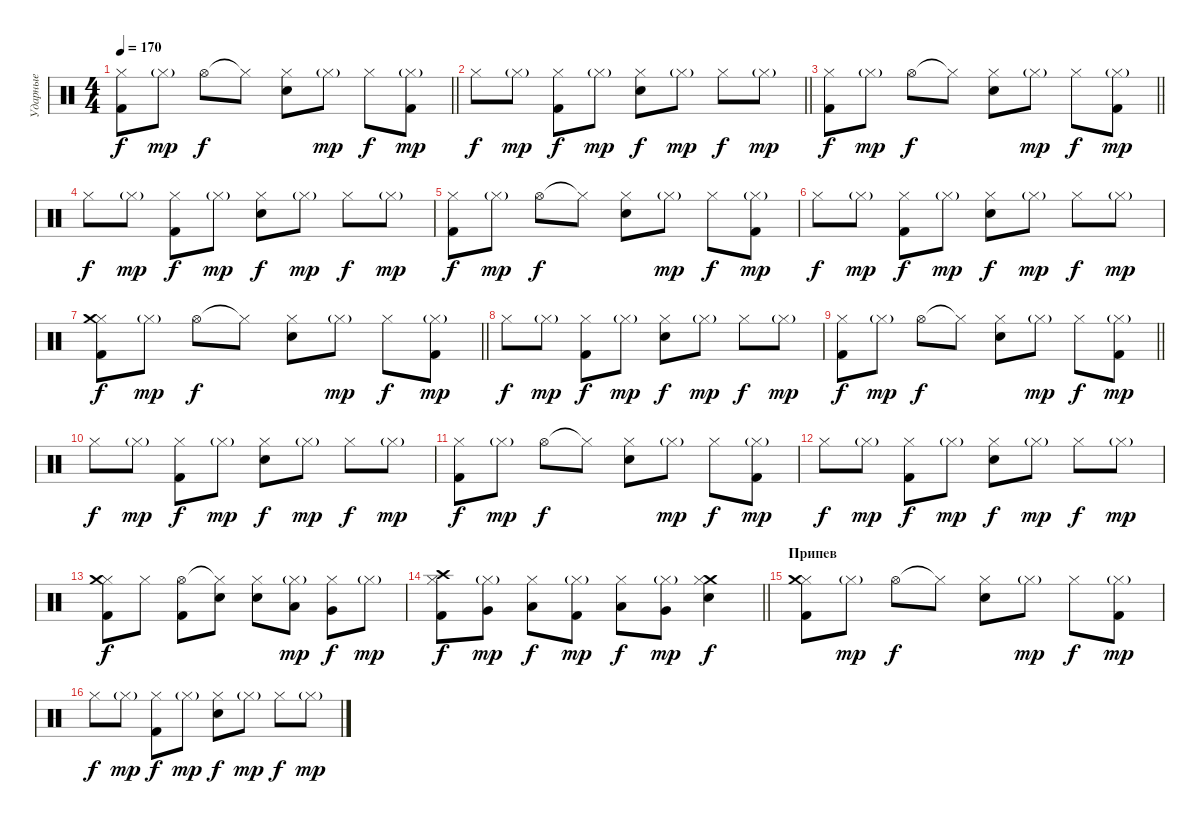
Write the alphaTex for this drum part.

\track ("Ударные" "Ударные") {instrument percussion}
\staff {score}
\articulation defaults
\ts (4 4)
\tempo 170
\clef neutral
\barLineRight lightlight
\ks c
("Kick (hit) 2" "Hi-Hat (closed)").8{dy f} "Hi-Hat (closed)"{g}.8{dy mp} "Hi-Hat (open)".8{dy f} "Hi-Hat (closed)"{t}.8 ("Electric Snare (hit)" "Hi-Hat (closed)").8 "Hi-Hat (closed)"{g}.8{dy mp} "Hi-Hat (closed)".8{dy f} ("Kick (hit) 2" "Hi-Hat (closed)"{g}).8{dy mp} |
\barLineRight lightlight "Hi-Hat (closed)".8{dy f} "Hi-Hat (closed)"{g}.8{dy mp}
("Kick (hit) 2" "Hi-Hat (closed)").8{dy f} "Hi-Hat (closed)"{g}.8{dy mp} ("Electric Snare (hit)" "Hi-Hat (closed)").8{dy f} "Hi-Hat (closed)"{g}.8{dy mp} "Hi-Hat (closed)".8{dy f} "Hi-Hat (closed)"{g}.8{dy mp} |
\barLineRight lightlight
("Kick (hit) 2" "Hi-Hat (closed)").8{dy f} "Hi-Hat (closed)"{g}.8{dy mp} "Hi-Hat (open)".8{dy f} "Hi-Hat (closed)"{t}.8 ("Electric Snare (hit)" "Hi-Hat (closed)").8 "Hi-Hat (closed)"{g}.8{dy mp} "Hi-Hat (closed)".8{dy f} ("Kick (hit) 2" "Hi-Hat (closed)"{g}).8{dy mp} |
"Hi-Hat (closed)".8{dy f} "Hi-Hat (closed)"{g}.8{dy mp} ("Kick (hit) 2" "Hi-Hat (closed)").8{dy f} "Hi-Hat (closed)"{g}.8{dy mp} ("Electric Snare (hit)" "Hi-Hat (closed)").8{dy f} "Hi-Hat (closed)"{g}.8{dy mp} "Hi-Hat (closed)".8{dy f} "Hi-Hat (closed)"{g}.8{dy mp} |
("Kick (hit) 2" "Hi-Hat (closed)").8{dy f} "Hi-Hat (closed)"{g}.8{dy mp} "Hi-Hat (open)".8{dy f} "Hi-Hat (closed)"{t}.8 ("Electric Snare (hit)" "Hi-Hat (closed)").8 "Hi-Hat (closed)"{g}.8{dy mp} "Hi-Hat (closed)".8{dy f} ("Kick (hit) 2" "Hi-Hat (closed)"{g}).8{dy mp} |
"Hi-Hat (closed)".8{dy f} "Hi-Hat (closed)"{g}.8{dy mp} ("Kick (hit) 2" "Hi-Hat (closed)").8{dy f} "Hi-Hat (closed)"{g}.8{dy mp} ("Electric Snare (hit)" "Hi-Hat (closed)").8{dy f} "Hi-Hat (closed)"{g}.8{dy mp} "Hi-Hat (closed)".8{dy f} "Hi-Hat (closed)"{g}.8{dy mp} |
\barLineRight lightlight
("Kick (hit) 2" "Hi-Hat (closed)" "Crash medium (hit)").8{dy f} "Hi-Hat (closed)"{g}.8{dy mp} "Hi-Hat (open)".8{dy f} "Hi-Hat (closed)"{t}.8 ("Electric Snare (hit)" "Hi-Hat (closed)").8 "Hi-Hat (closed)"{g}.8{dy mp} "Hi-Hat (closed)".8{dy f} ("Kick (hit) 2" "Hi-Hat (closed)"{g}).8{dy mp} |
"Hi-Hat (closed)".8{dy f} "Hi-Hat (closed)"{g}.8{dy mp} ("Kick (hit) 2" "Hi-Hat (closed)").8{dy f} "Hi-Hat (closed)"{g}.8{dy mp} ("Electric Snare (hit)" "Hi-Hat (closed)").8{dy f} "Hi-Hat (closed)"{g}.8{dy mp} "Hi-Hat (closed)".8{dy f} "Hi-Hat (closed)"{g}.8{dy mp} |
\barLineRight lightlight
("Kick (hit) 2" "Hi-Hat (closed)").8{dy f} "Hi-Hat (closed)"{g}.8{dy mp} "Hi-Hat (open)".8{dy f} "Hi-Hat (closed)"{t}.8 ("Electric Snare (hit)" "Hi-Hat (closed)").8 "Hi-Hat (closed)"{g}.8{dy mp} "Hi-Hat (closed)".8{dy f} ("Kick (hit) 2" "Hi-Hat (closed)"{g}).8{dy mp} |
"Hi-Hat (closed)".8{dy f} "Hi-Hat (closed)"{g}.8{dy mp} ("Kick (hit) 2" "Hi-Hat (closed)").8{dy f} "Hi-Hat (closed)"{g}.8{dy mp} ("Electric Snare (hit)" "Hi-Hat (closed)").8{dy f} "Hi-Hat (closed)"{g}.8{dy mp} "Hi-Hat (closed)".8{dy f} "Hi-Hat (closed)"{g}.8{dy mp} |
("Kick (hit) 2" "Hi-Hat (closed)").8{dy f} "Hi-Hat (closed)"{g}.8{dy mp} "Hi-Hat (open)".8{dy f} "Hi-Hat (closed)"{t}.8 ("Electric Snare (hit)" "Hi-Hat (closed)").8 "Hi-Hat (closed)"{g}.8{dy mp} "Hi-Hat (closed)".8{dy f} ("Kick (hit) 2" "Hi-Hat (closed)"{g}).8{dy mp} |
"Hi-Hat (closed)".8{dy f} "Hi-Hat (closed)"{g}.8{dy mp} ("Kick (hit) 2" "Hi-Hat (closed)").8{dy f} "Hi-Hat (closed)"{g}.8{dy mp} ("Electric Snare (hit)" "Hi-Hat (closed)").8{dy f} "Hi-Hat (closed)"{g}.8{dy mp} "Hi-Hat (closed)".8{dy f} "Hi-Hat (closed)"{g}.8{dy mp} |
("Kick (hit) 2" "Hi-Hat (closed)" "Crash medium (hit)").8{dy f} "Hi-Hat (closed)".8 ("Hi-Hat (open)" "Kick (hit) 2").8 ("Hi-Hat (closed)"{t} "Electric Snare (hit)").8 ("Hi-Hat (closed)" "Electric Snare (hit)").8 ("Hi-Hat (closed)"{g} "Low Tom (hit)").8{dy mp} ("Hi-Hat (closed)" "Very Low Tom (hit)").8{dy f} "Hi-Hat (closed)"{g}.8{dy mp} |
\barLineRight lightlight
("Crash high (hit)" "Hi-Hat (closed)" "Kick (hit) 2").8{dy f} ("Hi-Hat (closed)"{g} "Very Low Tom (hit)").8{dy mp} ("Hi-Hat (closed)" "Low Floor Tom (hit)").8{dy f} ("Hi-Hat (closed)"{g} "Kick (hit) 2").8{dy mp} ("Hi-Hat (closed)" "Low Floor Tom (hit)").8{dy f} ("Hi-Hat (closed)"{g} "Very Low Tom (hit)").8{dy mp} ("Crash medium (hit)" "Hi-Hat (closed)" "Electric Snare (hit)").4{dy f} |
\section ("" "Припев")
("Kick (hit) 2" "Hi-Hat (closed)" "Crash medium (hit)").8 "Hi-Hat (closed)"{g}.8{dy mp} "Hi-Hat (open)".8{dy f} "Hi-Hat (closed)"{t}.8 ("Electric Snare (hit)" "Hi-Hat (closed)").8 "Hi-Hat (closed)"{g}.8{dy mp} "Hi-Hat (closed)".8{dy f} ("Kick (hit) 2" "Hi-Hat (closed)"{g}).8{dy mp} |
"Hi-Hat (closed)".8{dy f} "Hi-Hat (closed)"{g}.8{dy mp} ("Kick (hit) 2" "Hi-Hat (closed)").8{dy f} "Hi-Hat (closed)"{g}.8{dy mp} ("Electric Snare (hit)" "Hi-Hat (closed)").8{dy f} "Hi-Hat (closed)"{g}.8{dy mp} "Hi-Hat (closed)".8{dy f} "Hi-Hat (closed)"{g}.8{dy mp}
